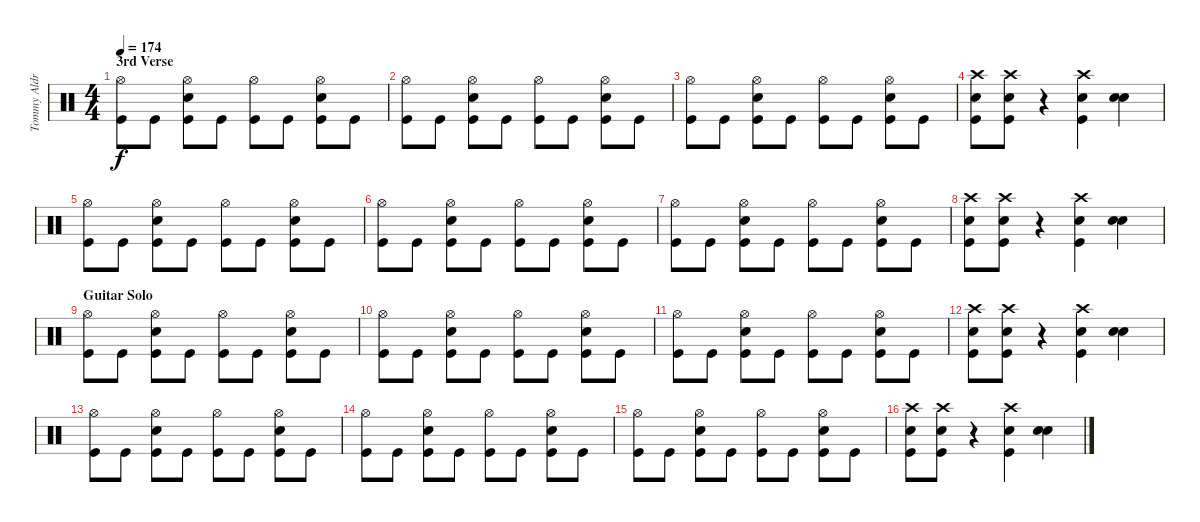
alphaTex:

\track ("Tommy Aldrige" "Tommy Aldr") {instrument percussion}
\staff {score}
\articulation defaults
\ts (4 4)
\section ("" "3rd Verse")
\tempo 174
\clef neutral
\ks c
("Hi-Hat (open)" "Kick (hit)").8{dy f} "Kick (hit)".8 ("Hi-Hat (open)" "Kick (hit)" "Snare (hit) 2").8 "Kick (hit)".8 ("Hi-Hat (open)" "Kick (hit)").8 "Kick (hit)".8 ("Hi-Hat (open)" "Kick (hit)" "Snare (hit) 2").8 "Kick (hit)".8 |
("Hi-Hat (open)" "Kick (hit)").8 "Kick (hit)".8 ("Hi-Hat (open)" "Kick (hit)" "Snare (hit) 2").8 "Kick (hit)".8 ("Hi-Hat (open)" "Kick (hit)").8 "Kick (hit)".8 ("Hi-Hat (open)" "Kick (hit)" "Snare (hit) 2").8 "Kick (hit)".8 |
("Hi-Hat (open)" "Kick (hit)").8 "Kick (hit)".8 ("Hi-Hat (open)" "Kick (hit)" "Snare (hit) 2").8 "Kick (hit)".8 ("Hi-Hat (open)" "Kick (hit)").8 "Kick (hit)".8 ("Hi-Hat (open)" "Kick (hit)" "Snare (hit) 2").8 "Kick (hit)".8 |
("Crash high (hit)" "Kick (hit)" "Snare (hit) 2").8 ("Crash high (hit)" "Kick (hit)" "Snare (hit) 2").8 r.4 ("Crash high (hit)" "Kick (hit)" "Snare (hit) 2").4 ("Snare (hit) 2" "Snare (hit) 2").4{bu 240} |
("Hi-Hat (open)" "Kick (hit)").8 "Kick (hit)".8 ("Hi-Hat (open)" "Kick (hit)" "Snare (hit) 2").8 "Kick (hit)".8 ("Hi-Hat (open)" "Kick (hit)").8 "Kick (hit)".8 ("Hi-Hat (open)" "Kick (hit)" "Snare (hit) 2").8 "Kick (hit)".8 |
("Hi-Hat (open)" "Kick (hit)").8 "Kick (hit)".8 ("Hi-Hat (open)" "Kick (hit)" "Snare (hit) 2").8 "Kick (hit)".8 ("Hi-Hat (open)" "Kick (hit)").8 "Kick (hit)".8 ("Hi-Hat (open)" "Kick (hit)" "Snare (hit) 2").8 "Kick (hit)".8 |
("Hi-Hat (open)" "Kick (hit)").8 "Kick (hit)".8 ("Hi-Hat (open)" "Kick (hit)" "Snare (hit) 2").8 "Kick (hit)".8 ("Hi-Hat (open)" "Kick (hit)").8 "Kick (hit)".8 ("Hi-Hat (open)" "Kick (hit)" "Snare (hit) 2").8 "Kick (hit)".8 |
("Crash high (hit)" "Kick (hit)" "Snare (hit) 2").8 ("Crash high (hit)" "Kick (hit)" "Snare (hit) 2").8 r.4 ("Crash high (hit)" "Kick (hit)" "Snare (hit) 2").4 ("Snare (hit) 2" "Snare (hit) 2").4{bu 240} |
\section ("" "Guitar Solo")
("Hi-Hat (open)" "Kick (hit)").8 "Kick (hit)".8 ("Hi-Hat (open)" "Kick (hit)" "Snare (hit) 2").8 "Kick (hit)".8 ("Hi-Hat (open)" "Kick (hit)").8 "Kick (hit)".8 ("Hi-Hat (open)" "Kick (hit)" "Snare (hit) 2").8 "Kick (hit)".8 |
("Hi-Hat (open)" "Kick (hit)").8 "Kick (hit)".8 ("Hi-Hat (open)" "Kick (hit)" "Snare (hit) 2").8 "Kick (hit)".8 ("Hi-Hat (open)" "Kick (hit)").8 "Kick (hit)".8 ("Hi-Hat (open)" "Kick (hit)" "Snare (hit) 2").8 "Kick (hit)".8 |
("Hi-Hat (open)" "Kick (hit)").8 "Kick (hit)".8 ("Hi-Hat (open)" "Kick (hit)" "Snare (hit) 2").8 "Kick (hit)".8 ("Hi-Hat (open)" "Kick (hit)").8 "Kick (hit)".8 ("Hi-Hat (open)" "Kick (hit)" "Snare (hit) 2").8 "Kick (hit)".8 |
("Crash high (hit)" "Kick (hit)" "Snare (hit) 2").8 ("Crash high (hit)" "Kick (hit)" "Snare (hit) 2").8 r.4 ("Crash high (hit)" "Kick (hit)" "Snare (hit) 2").4 ("Snare (hit) 2" "Snare (hit) 2").4{bu 240} |
("Hi-Hat (open)" "Kick (hit)").8 "Kick (hit)".8 ("Hi-Hat (open)" "Kick (hit)" "Snare (hit) 2").8 "Kick (hit)".8 ("Hi-Hat (open)" "Kick (hit)").8 "Kick (hit)".8 ("Hi-Hat (open)" "Kick (hit)" "Snare (hit) 2").8 "Kick (hit)".8 |
("Hi-Hat (open)" "Kick (hit)").8 "Kick (hit)".8 ("Hi-Hat (open)" "Kick (hit)" "Snare (hit) 2").8 "Kick (hit)".8 ("Hi-Hat (open)" "Kick (hit)").8 "Kick (hit)".8 ("Hi-Hat (open)" "Kick (hit)" "Snare (hit) 2").8 "Kick (hit)".8 |
("Hi-Hat (open)" "Kick (hit)").8 "Kick (hit)".8 ("Hi-Hat (open)" "Kick (hit)" "Snare (hit) 2").8 "Kick (hit)".8 ("Hi-Hat (open)" "Kick (hit)").8 "Kick (hit)".8 ("Hi-Hat (open)" "Kick (hit)" "Snare (hit) 2").8 "Kick (hit)".8 |
("Crash high (hit)" "Kick (hit)" "Snare (hit) 2").8 ("Crash high (hit)" "Kick (hit)" "Snare (hit) 2").8 r.4 ("Crash high (hit)" "Kick (hit)" "Snare (hit) 2").4 ("Snare (hit) 2" "Snare (hit) 2").4{bu 240}
